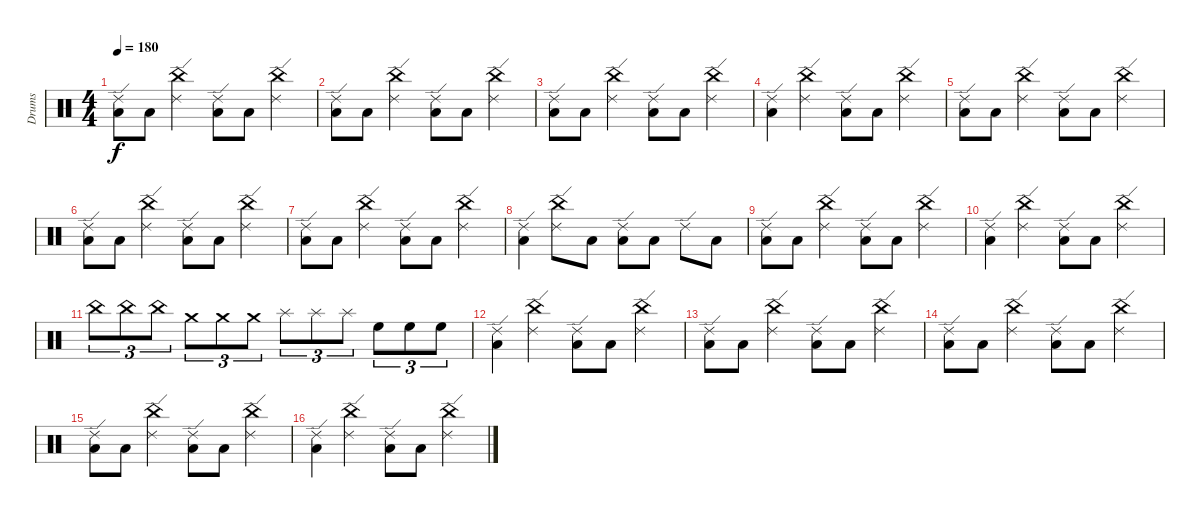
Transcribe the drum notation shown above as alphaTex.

\track ("Drums" "Drums") {instrument percussion}
\staff {score}
\articulation defaults
\ts (4 4)
\tempo 180
\clef neutral
\ks c
("Low Tom (hit)" "Ride (edge) 2").8{dy f} "Low Tom (hit)".8 ("China (hit)" "Ride (edge) 2").4 ("Low Tom (hit)" "Ride (edge) 2").8 "Low Tom (hit)".8 ("China (hit)" "Ride (edge) 2").4 |
("Low Tom (hit)" "Ride (edge) 2").8 "Low Tom (hit)".8 ("China (hit)" "Ride (edge) 2").4 ("Low Tom (hit)" "Ride (edge) 2").8 "Low Tom (hit)".8 ("China (hit)" "Ride (edge) 2").4 |
("Low Tom (hit)" "Ride (edge) 2").8 "Low Tom (hit)".8 ("China (hit)" "Ride (edge) 2").4 ("Low Tom (hit)" "Ride (edge) 2").8 "Low Tom (hit)".8 ("China (hit)" "Ride (edge) 2").4 |
("Low Tom (hit)" "Ride (edge) 2").4 ("China (hit)" "Ride (edge) 2").4 ("Low Tom (hit)" "Ride (edge) 2").8 "Low Tom (hit)".8 ("China (hit)" "Ride (edge) 2").4 |
("Low Tom (hit)" "Ride (edge) 2").8 "Low Tom (hit)".8 ("China (hit)" "Ride (edge) 2").4 ("Low Tom (hit)" "Ride (edge) 2").8 "Low Tom (hit)".8 ("China (hit)" "Ride (edge) 2").4 |
("Low Tom (hit)" "Ride (edge) 2").8 "Low Tom (hit)".8 ("China (hit)" "Ride (edge) 2").4 ("Low Tom (hit)" "Ride (edge) 2").8 "Low Tom (hit)".8 ("China (hit)" "Ride (edge) 2").4 |
("Low Tom (hit)" "Ride (edge) 2").8 "Low Tom (hit)".8 ("China (hit)" "Ride (edge) 2").4 ("Low Tom (hit)" "Ride (edge) 2").8 "Low Tom (hit)".8 ("China (hit)" "Ride (edge) 2").4 |
("Ride (edge) 2" "Low Tom (hit)").4 ("Ride (edge) 2" "China (hit)").8 "Low Tom (hit)".8 ("Ride (edge) 2" "Low Tom (hit)").8 "Low Tom (hit)".8 "Ride (edge) 2".8 "Low Tom (hit)".8 |
("Low Tom (hit)" "Ride (edge) 2").8 "Low Tom (hit)".8 ("China (hit)" "Ride (edge) 2").4 ("Low Tom (hit)" "Ride (edge) 2").8 "Low Tom (hit)".8 ("China (hit)" "Ride (edge) 2").4 |
("Low Tom (hit)" "Ride (edge) 2").4 ("China (hit)" "Ride (edge) 2").4 ("Low Tom (hit)" "Ride (edge) 2").8 "Low Tom (hit)".8 ("China (hit)" "Ride (edge) 2").4 |
"China (hit)".8{tu (3 2)} "China (hit)".8{tu (3 2)} "China (hit)".8{tu (3 2)} "Crash medium (hit)".8{tu (3 2)} "Crash medium (hit)".8{tu (3 2)} "Crash medium (hit)".8{tu (3 2)} "Splash (hit)".8{tu (3 2)} "Splash (hit)".8{tu (3 2)} "Splash (hit)".8{tu (3 2)} "High Floor Tom (hit)".8{tu (3 2)} "High Floor Tom (hit)".8{tu (3 2)} "High Floor Tom (hit)".8{tu (3 2)} |
("Ride (edge) 2" "Low Tom (hit)").4 ("China (hit)" "Ride (edge) 2").4 ("Ride (edge) 2" "Low Tom (hit)").8 "Low Tom (hit)".8 ("China (hit)" "Ride (edge) 2").4 |
("Low Tom (hit)" "Ride (edge) 2").8 "Low Tom (hit)".8 ("China (hit)" "Ride (edge) 2").4 ("Low Tom (hit)" "Ride (edge) 2").8 "Low Tom (hit)".8 ("China (hit)" "Ride (edge) 2").4 |
("Low Tom (hit)" "Ride (edge) 2").8 "Low Tom (hit)".8 ("China (hit)" "Ride (edge) 2").4 ("Low Tom (hit)" "Ride (edge) 2").8 "Low Tom (hit)".8 ("China (hit)" "Ride (edge) 2").4 |
("Low Tom (hit)" "Ride (edge) 2").8 "Low Tom (hit)".8 ("China (hit)" "Ride (edge) 2").4 ("Low Tom (hit)" "Ride (edge) 2").8 "Low Tom (hit)".8 ("China (hit)" "Ride (edge) 2").4 |
("Low Tom (hit)" "Ride (edge) 2").4 ("China (hit)" "Ride (edge) 2").4 ("Low Tom (hit)" "Ride (edge) 2").8 "Low Tom (hit)".8 ("China (hit)" "Ride (edge) 2").4
